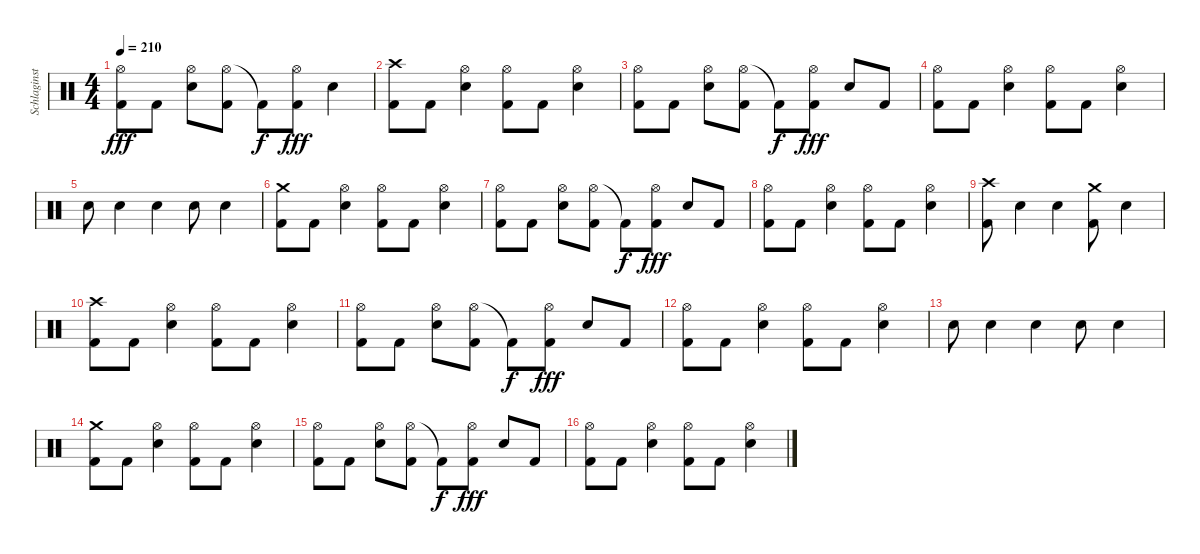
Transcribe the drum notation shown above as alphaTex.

\track ("Schlaginstrumente - Auswahl" "Schlaginst") {instrument percussion}
\staff {score}
\articulation defaults
\ts (4 4)
\tempo 210
\clef neutral
\ks c
("Hi-Hat (open)" "Kick (hit) 2").8{dy fff} "Kick (hit) 2".8 ("Hi-Hat (open)" "Electric Snare (hit)").8 ("Hi-Hat (open)" "Kick (hit) 2").8 "Kick (hit) 2"{t}.8{dy f} ("Hi-Hat (open)" "Kick (hit) 2").8{dy fff} "Electric Snare (hit)".4 |
("Crash high (hit)" "Kick (hit) 2").8 "Kick (hit) 2".8 ("Hi-Hat (open)" "Electric Snare (hit)").4 ("Hi-Hat (open)" "Kick (hit) 2").8 "Kick (hit) 2".8 ("Hi-Hat (open)" "Electric Snare (hit)").4 |
("Hi-Hat (open)" "Kick (hit) 2").8 "Kick (hit) 2".8 ("Hi-Hat (open)" "Electric Snare (hit)").8 ("Hi-Hat (open)" "Kick (hit) 2").8 "Kick (hit) 2"{t}.8{dy f} ("Hi-Hat (open)" "Kick (hit) 2").8{dy fff} "Electric Snare (hit)".8 "Kick (hit) 2".8 |
("Hi-Hat (open)" "Kick (hit) 2").8 "Kick (hit) 2".8 ("Hi-Hat (open)" "Electric Snare (hit)").4 ("Hi-Hat (open)" "Kick (hit) 2").8 "Kick (hit) 2".8 ("Hi-Hat (open)" "Electric Snare (hit)").4 |
"Electric Snare (hit)".8 "Electric Snare (hit)".4 "Electric Snare (hit)".4 "Electric Snare (hit)".8 "Electric Snare (hit)".4 |
("Crash medium (hit)" "Kick (hit) 2").8 "Kick (hit) 2".8 ("Hi-Hat (open)" "Electric Snare (hit)").4 ("Hi-Hat (open)" "Kick (hit) 2").8 "Kick (hit) 2".8 ("Hi-Hat (open)" "Electric Snare (hit)").4 |
("Hi-Hat (open)" "Kick (hit) 2").8 "Kick (hit) 2".8 ("Hi-Hat (open)" "Electric Snare (hit)").8 ("Hi-Hat (open)" "Kick (hit) 2").8 "Kick (hit) 2"{t}.8{dy f} ("Hi-Hat (open)" "Kick (hit) 2").8{dy fff} "Electric Snare (hit)".8 "Kick (hit) 2".8 |
("Hi-Hat (open)" "Kick (hit) 2").8 "Kick (hit) 2".8 ("Hi-Hat (open)" "Electric Snare (hit)").4 ("Hi-Hat (open)" "Kick (hit) 2").8 "Kick (hit) 2".8 ("Hi-Hat (open)" "Electric Snare (hit)").4 |
("Crash high (hit)" "Kick (hit) 2").8 "Electric Snare (hit)".4 "Electric Snare (hit)".4 ("Crash medium (hit)" "Kick (hit) 2").8 "Electric Snare (hit)".4 |
("Crash high (hit)" "Kick (hit) 2").8 "Kick (hit) 2".8 ("Hi-Hat (open)" "Electric Snare (hit)").4 ("Hi-Hat (open)" "Kick (hit) 2").8 "Kick (hit) 2".8 ("Hi-Hat (open)" "Electric Snare (hit)").4 |
("Hi-Hat (open)" "Kick (hit) 2").8 "Kick (hit) 2".8 ("Hi-Hat (open)" "Electric Snare (hit)").8 ("Hi-Hat (open)" "Kick (hit) 2").8 "Kick (hit) 2"{t}.8{dy f} ("Hi-Hat (open)" "Kick (hit) 2").8{dy fff} "Electric Snare (hit)".8 "Kick (hit) 2".8 |
("Hi-Hat (open)" "Kick (hit) 2").8 "Kick (hit) 2".8 ("Hi-Hat (open)" "Electric Snare (hit)").4 ("Hi-Hat (open)" "Kick (hit) 2").8 "Kick (hit) 2".8 ("Hi-Hat (open)" "Electric Snare (hit)").4 |
"Electric Snare (hit)".8 "Electric Snare (hit)".4 "Electric Snare (hit)".4 "Electric Snare (hit)".8 "Electric Snare (hit)".4 |
("Crash medium (hit)" "Kick (hit) 2").8 "Kick (hit) 2".8 ("Hi-Hat (open)" "Electric Snare (hit)").4 ("Hi-Hat (open)" "Kick (hit) 2").8 "Kick (hit) 2".8 ("Hi-Hat (open)" "Electric Snare (hit)").4 |
("Hi-Hat (open)" "Kick (hit) 2").8 "Kick (hit) 2".8 ("Hi-Hat (open)" "Electric Snare (hit)").8 ("Hi-Hat (open)" "Kick (hit) 2").8 "Kick (hit) 2"{t}.8{dy f} ("Hi-Hat (open)" "Kick (hit) 2").8{dy fff} "Electric Snare (hit)".8 "Kick (hit) 2".8 |
("Hi-Hat (open)" "Kick (hit) 2").8 "Kick (hit) 2".8 ("Hi-Hat (open)" "Electric Snare (hit)").4 ("Hi-Hat (open)" "Kick (hit) 2").8 "Kick (hit) 2".8 ("Hi-Hat (open)" "Electric Snare (hit)").4
